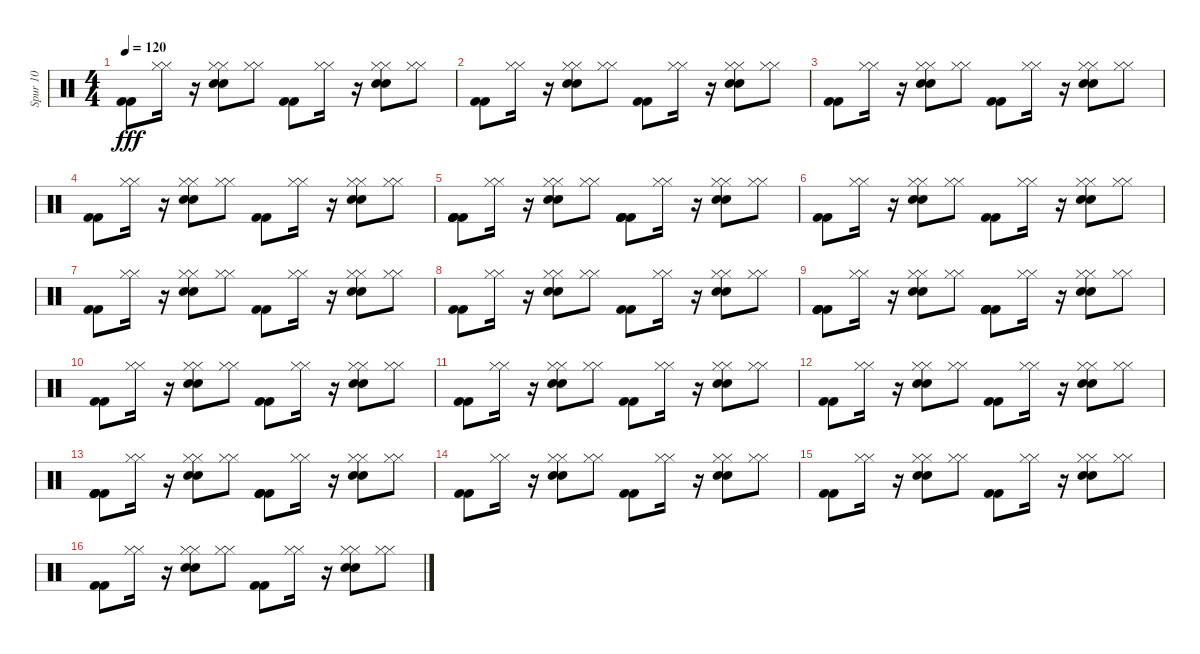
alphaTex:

\track ("Spur 10" "Spur 10") {instrument percussion}
\staff {score}
\articulation defaults
\ts (4 4)
\tempo 120
\clef neutral
\ks c
("Kick (hit) 2" "Kick (hit) 2").8{dy fff} ("Hi-Hat (closed)" "Hi-Hat (closed)").16 r.16 ("Hi-Hat (closed)" "Snare (hit) 2" "Hi-Hat (closed)" "Snare (hit) 2").8 ("Hi-Hat (closed)" "Hi-Hat (closed)").8 ("Kick (hit) 2" "Kick (hit) 2").8 ("Hi-Hat (closed)" "Hi-Hat (closed)").16 r.16 ("Snare (hit) 2" "Snare (hit) 2" "Hi-Hat (closed)" "Hi-Hat (closed)").8 ("Hi-Hat (closed)" "Hi-Hat (closed)").8 |
("Kick (hit) 2" "Kick (hit) 2").8 ("Hi-Hat (closed)" "Hi-Hat (closed)").16 r.16 ("Hi-Hat (closed)" "Hi-Hat (closed)" "Snare (hit) 2" "Snare (hit) 2").8 ("Hi-Hat (closed)" "Hi-Hat (closed)").8 ("Kick (hit) 2" "Kick (hit) 2").8 ("Hi-Hat (closed)" "Hi-Hat (closed)").16 r.16 ("Hi-Hat (closed)" "Snare (hit) 2" "Hi-Hat (closed)" "Snare (hit) 2").8 ("Hi-Hat (closed)" "Hi-Hat (closed)").8 |
("Kick (hit) 2" "Kick (hit) 2").8 ("Hi-Hat (closed)" "Hi-Hat (closed)").16 r.16 ("Hi-Hat (closed)" "Snare (hit) 2" "Hi-Hat (closed)" "Snare (hit) 2").8 ("Hi-Hat (closed)" "Hi-Hat (closed)").8 ("Kick (hit) 2" "Kick (hit) 2").8 ("Hi-Hat (closed)" "Hi-Hat (closed)").16 r.16 ("Hi-Hat (closed)" "Hi-Hat (closed)" "Snare (hit) 2" "Snare (hit) 2").8 ("Hi-Hat (closed)" "Hi-Hat (closed)").8 |
("Kick (hit) 2" "Kick (hit) 2").8 ("Hi-Hat (closed)" "Hi-Hat (closed)").16 r.16 ("Hi-Hat (closed)" "Snare (hit) 2" "Hi-Hat (closed)" "Snare (hit) 2").8 ("Hi-Hat (closed)" "Hi-Hat (closed)").8 ("Kick (hit) 2" "Kick (hit) 2").8 ("Hi-Hat (closed)" "Hi-Hat (closed)").16 r.16 ("Snare (hit) 2" "Snare (hit) 2" "Hi-Hat (closed)" "Hi-Hat (closed)").8 ("Hi-Hat (closed)" "Hi-Hat (closed)").8 |
("Kick (hit) 2" "Kick (hit) 2" "Kick (hit) 2" "Kick (hit) 2").8 ("Hi-Hat (closed)" "Hi-Hat (closed)").16 r.16 ("Hi-Hat (closed)" "Hi-Hat (closed)" "Snare (hit) 2" "Snare (hit) 2").8 ("Hi-Hat (closed)" "Hi-Hat (closed)").8 ("Kick (hit) 2" "Kick (hit) 2" "Kick (hit) 2" "Kick (hit) 2").8 ("Hi-Hat (closed)" "Hi-Hat (closed)").16 r.16 ("Hi-Hat (closed)" "Hi-Hat (closed)" "Snare (hit) 2" "Snare (hit) 2").8 ("Hi-Hat (closed)" "Hi-Hat (closed)").8 |
("Kick (hit) 2" "Kick (hit) 2").8 ("Hi-Hat (closed)" "Hi-Hat (closed)").16 r.16 ("Snare (hit) 2" "Hi-Hat (closed)" "Snare (hit) 2" "Hi-Hat (closed)").8 ("Hi-Hat (closed)" "Hi-Hat (closed)").8 ("Kick (hit) 2" "Kick (hit) 2").8 ("Hi-Hat (closed)" "Hi-Hat (closed)").16 r.16 ("Snare (hit) 2" "Hi-Hat (closed)" "Snare (hit) 2" "Hi-Hat (closed)").8 ("Hi-Hat (closed)" "Hi-Hat (closed)").8 |
("Kick (hit) 2" "Kick (hit) 2").8 ("Hi-Hat (closed)" "Hi-Hat (closed)").16 r.16 ("Hi-Hat (closed)" "Snare (hit) 2" "Hi-Hat (closed)" "Snare (hit) 2").8 ("Hi-Hat (closed)" "Hi-Hat (closed)").8 ("Kick (hit) 2" "Kick (hit) 2").8 ("Hi-Hat (closed)" "Hi-Hat (closed)").16 r.16 ("Snare (hit) 2" "Hi-Hat (closed)" "Snare (hit) 2" "Hi-Hat (closed)").8 ("Hi-Hat (closed)" "Hi-Hat (closed)").8 |
("Kick (hit) 2" "Kick (hit) 2").8 ("Hi-Hat (closed)" "Hi-Hat (closed)").16 r.16 ("Hi-Hat (closed)" "Hi-Hat (closed)" "Snare (hit) 2" "Snare (hit) 2").8 ("Hi-Hat (closed)" "Hi-Hat (closed)").8 ("Kick (hit) 2" "Kick (hit) 2").8 ("Hi-Hat (closed)" "Hi-Hat (closed)").16 r.16 ("Snare (hit) 2" "Hi-Hat (closed)" "Snare (hit) 2" "Hi-Hat (closed)").8 ("Hi-Hat (closed)" "Hi-Hat (closed)").8 |
("Kick (hit) 2" "Kick (hit) 2" "Kick (hit) 2" "Kick (hit) 2").8 ("Hi-Hat (closed)" "Hi-Hat (closed)").16 r.16 ("Snare (hit) 2" "Hi-Hat (closed)" "Snare (hit) 2" "Hi-Hat (closed)").8 ("Hi-Hat (closed)" "Hi-Hat (closed)").8 ("Kick (hit) 2" "Kick (hit) 2" "Kick (hit) 2" "Kick (hit) 2").8 ("Hi-Hat (closed)" "Hi-Hat (closed)").16 r.16 ("Snare (hit) 2" "Hi-Hat (closed)" "Snare (hit) 2" "Hi-Hat (closed)").8 ("Hi-Hat (closed)" "Hi-Hat (closed)").8 |
("Kick (hit) 2" "Kick (hit) 2").8 ("Hi-Hat (closed)" "Hi-Hat (closed)").16 r.16 ("Snare (hit) 2" "Snare (hit) 2" "Hi-Hat (closed)" "Hi-Hat (closed)").8 ("Hi-Hat (closed)" "Hi-Hat (closed)").8 ("Kick (hit) 2" "Kick (hit) 2").8 ("Hi-Hat (closed)" "Hi-Hat (closed)").16 r.16 ("Snare (hit) 2" "Hi-Hat (closed)" "Snare (hit) 2" "Hi-Hat (closed)").8 ("Hi-Hat (closed)" "Hi-Hat (closed)").8 |
("Kick (hit) 2" "Kick (hit) 2").8 ("Hi-Hat (closed)" "Hi-Hat (closed)").16 r.16 ("Snare (hit) 2" "Hi-Hat (closed)" "Snare (hit) 2" "Hi-Hat (closed)").8 ("Hi-Hat (closed)" "Hi-Hat (closed)").8 ("Kick (hit) 2" "Kick (hit) 2").8 ("Hi-Hat (closed)" "Hi-Hat (closed)").16 r.16 ("Hi-Hat (closed)" "Hi-Hat (closed)" "Snare (hit) 2" "Snare (hit) 2").8 ("Hi-Hat (closed)" "Hi-Hat (closed)").8 |
("Kick (hit) 2" "Kick (hit) 2").8 ("Hi-Hat (closed)" "Hi-Hat (closed)").16 r.16 ("Hi-Hat (closed)" "Snare (hit) 2" "Hi-Hat (closed)" "Snare (hit) 2").8 ("Hi-Hat (closed)" "Hi-Hat (closed)").8 ("Kick (hit) 2" "Kick (hit) 2").8 ("Hi-Hat (closed)" "Hi-Hat (closed)").16 r.16 ("Snare (hit) 2" "Snare (hit) 2" "Hi-Hat (closed)" "Hi-Hat (closed)").8 ("Hi-Hat (closed)" "Hi-Hat (closed)").8 |
("Kick (hit) 2" "Kick (hit) 2" "Kick (hit) 2" "Kick (hit) 2").8 ("Hi-Hat (closed)" "Hi-Hat (closed)").16 r.16 ("Hi-Hat (closed)" "Hi-Hat (closed)" "Snare (hit) 2" "Snare (hit) 2").8 ("Hi-Hat (closed)" "Hi-Hat (closed)").8 ("Kick (hit) 2" "Kick (hit) 2" "Kick (hit) 2" "Kick (hit) 2").8 ("Hi-Hat (closed)" "Hi-Hat (closed)").16 r.16 ("Hi-Hat (closed)" "Hi-Hat (closed)" "Snare (hit) 2" "Snare (hit) 2").8 ("Hi-Hat (closed)" "Hi-Hat (closed)").8 |
("Kick (hit) 2" "Kick (hit) 2").8 ("Hi-Hat (closed)" "Hi-Hat (closed)").16 r.16 ("Hi-Hat (closed)" "Snare (hit) 2" "Hi-Hat (closed)" "Snare (hit) 2").8 ("Hi-Hat (closed)" "Hi-Hat (closed)").8 ("Kick (hit) 2" "Kick (hit) 2").8 ("Hi-Hat (closed)" "Hi-Hat (closed)").16 r.16 ("Snare (hit) 2" "Hi-Hat (closed)" "Snare (hit) 2" "Hi-Hat (closed)").8 ("Hi-Hat (closed)" "Hi-Hat (closed)").8 |
("Kick (hit) 2" "Kick (hit) 2").8 ("Hi-Hat (closed)" "Hi-Hat (closed)").16 r.16 ("Hi-Hat (closed)" "Snare (hit) 2" "Hi-Hat (closed)" "Snare (hit) 2").8 ("Hi-Hat (closed)" "Hi-Hat (closed)").8 ("Kick (hit) 2" "Kick (hit) 2").8 ("Hi-Hat (closed)" "Hi-Hat (closed)").16 r.16 ("Hi-Hat (closed)" "Snare (hit) 2" "Hi-Hat (closed)" "Snare (hit) 2").8 ("Hi-Hat (closed)" "Hi-Hat (closed)").8 |
("Kick (hit) 2" "Kick (hit) 2").8 ("Hi-Hat (closed)" "Hi-Hat (closed)").16 r.16 ("Snare (hit) 2" "Snare (hit) 2" "Hi-Hat (closed)" "Hi-Hat (closed)").8 ("Hi-Hat (closed)" "Hi-Hat (closed)").8 ("Kick (hit) 2" "Kick (hit) 2").8 ("Hi-Hat (closed)" "Hi-Hat (closed)").16 r.16 ("Snare (hit) 2" "Hi-Hat (closed)" "Snare (hit) 2" "Hi-Hat (closed)").8 ("Hi-Hat (closed)" "Hi-Hat (closed)").8
